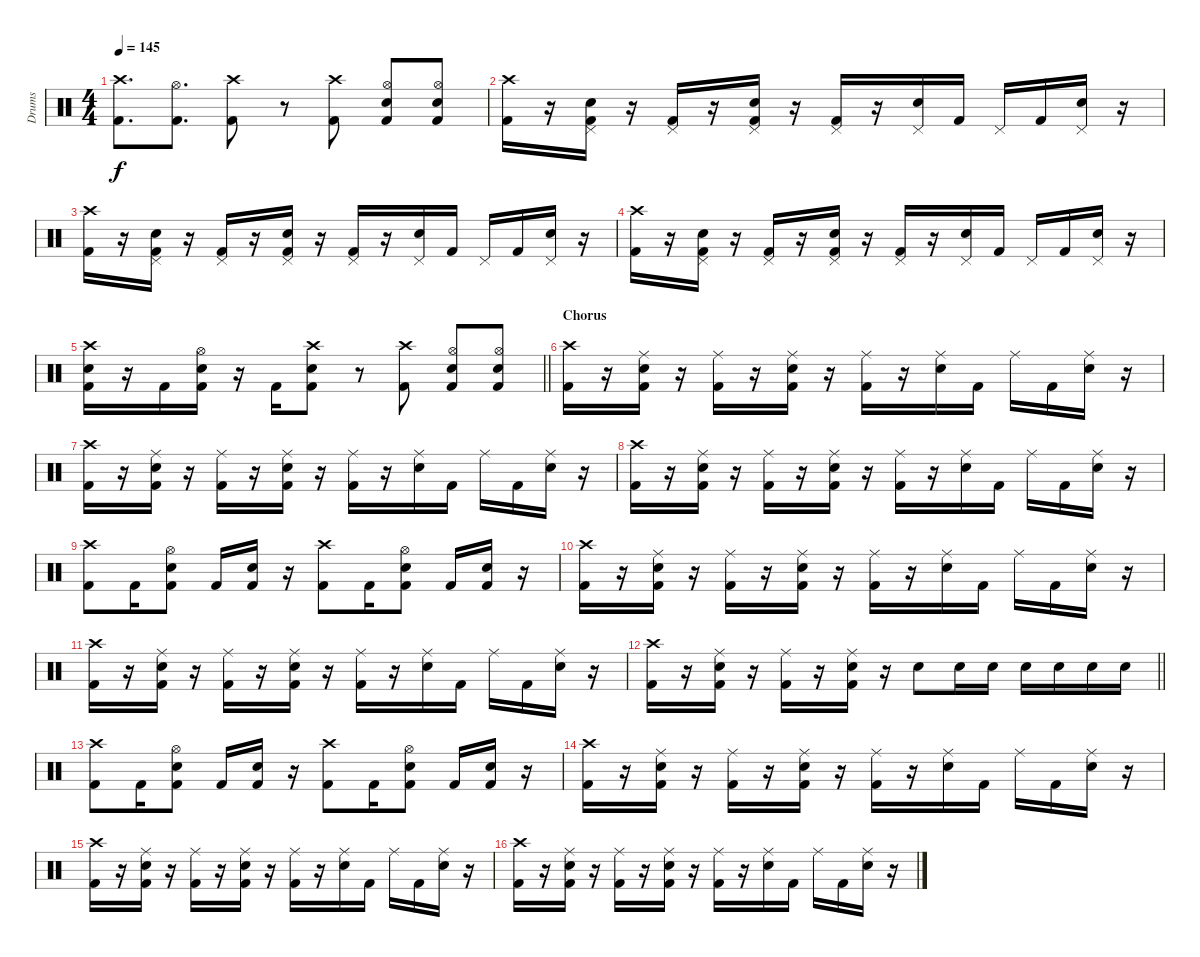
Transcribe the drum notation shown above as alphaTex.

\track ("Drums" "Drums") {instrument percussion}
\staff {score}
\articulation defaults
\ts (4 4)
\tempo 145
\clef neutral
\ks c
("Crash high (hit)" "Kick (hit) 2").8{d dy f} ("Hi-Hat (open)" "Kick (hit) 2").8{d} ("Crash high (hit)" "Kick (hit) 2").8 r.8 ("Crash high (hit)" "Kick (hit) 2").8 ("Hi-Hat (open)" "Snare (hit) 2" "Kick (hit) 2").8 ("Hi-Hat (open)" "Snare (hit) 2" "Kick (hit) 2").8 |
("Crash high (hit)" "Kick (hit) 2").16 r.16 ("Pedal Hi-Hat (hit)" "Snare (hit) 2" "Kick (hit) 2").16 r.16 ("Pedal Hi-Hat (hit)" "Kick (hit) 2").16 r.16 ("Pedal Hi-Hat (hit)" "Snare (hit) 2" "Kick (hit) 2").16 r.16 ("Pedal Hi-Hat (hit)" "Kick (hit) 2").16 r.16 ("Pedal Hi-Hat (hit)" "Snare (hit) 2").16 "Kick (hit) 2".16 "Pedal Hi-Hat (hit)".16 "Kick (hit) 2".16 ("Pedal Hi-Hat (hit)" "Snare (hit) 2").16 r.16 |
("Crash high (hit)" "Kick (hit) 2").16 r.16 ("Pedal Hi-Hat (hit)" "Snare (hit) 2" "Kick (hit) 2").16 r.16 ("Pedal Hi-Hat (hit)" "Kick (hit) 2").16 r.16 ("Pedal Hi-Hat (hit)" "Snare (hit) 2" "Kick (hit) 2").16 r.16 ("Pedal Hi-Hat (hit)" "Kick (hit) 2").16 r.16 ("Pedal Hi-Hat (hit)" "Snare (hit) 2").16 "Kick (hit) 2".16 "Pedal Hi-Hat (hit)".16 "Kick (hit) 2".16 ("Pedal Hi-Hat (hit)" "Snare (hit) 2").16 r.16 |
("Crash high (hit)" "Kick (hit) 2").16 r.16 ("Pedal Hi-Hat (hit)" "Snare (hit) 2" "Kick (hit) 2").16 r.16 ("Pedal Hi-Hat (hit)" "Kick (hit) 2").16 r.16 ("Pedal Hi-Hat (hit)" "Snare (hit) 2" "Kick (hit) 2").16 r.16 ("Pedal Hi-Hat (hit)" "Kick (hit) 2").16 r.16 ("Pedal Hi-Hat (hit)" "Snare (hit) 2").16 "Kick (hit) 2".16 "Pedal Hi-Hat (hit)".16 "Kick (hit) 2".16 ("Pedal Hi-Hat (hit)" "Snare (hit) 2").16 r.16 |
\barLineRight lightlight
("Crash high (hit)" "Snare (hit) 2" "Kick (hit) 2").16 r.16 "Kick (hit) 2".16 ("Hi-Hat (open)" "Snare (hit) 2" "Kick (hit) 2").16 r.16 "Kick (hit) 2".16 ("Crash high (hit)" "Snare (hit) 2" "Kick (hit) 2").8 r.8 ("Crash high (hit)" "Kick (hit) 2").8 ("Hi-Hat (open)" "Snare (hit) 2" "Kick (hit) 2").8 ("Hi-Hat (open)" "Snare (hit) 2" "Kick (hit) 2").8 |
\section ("" "Chorus")
("Crash high (hit)" "Kick (hit) 2").16 r.16 ("Ride (middle)" "Snare (hit) 2" "Kick (hit) 2").16 r.16 ("Ride (middle)" "Kick (hit) 2").16 r.16 ("Ride (middle)" "Snare (hit) 2" "Kick (hit) 2").16 r.16 ("Ride (middle)" "Kick (hit) 2").16 r.16 ("Ride (middle)" "Snare (hit) 2").16 "Kick (hit) 2".16 "Ride (middle)".16 "Kick (hit) 2".16 ("Ride (middle)" "Snare (hit) 2").16 r.16 |
("Crash high (hit)" "Kick (hit) 2").16 r.16 ("Ride (middle)" "Snare (hit) 2" "Kick (hit) 2").16 r.16 ("Ride (middle)" "Kick (hit) 2").16 r.16 ("Ride (middle)" "Snare (hit) 2" "Kick (hit) 2").16 r.16 ("Ride (middle)" "Kick (hit) 2").16 r.16 ("Ride (middle)" "Snare (hit) 2").16 "Kick (hit) 2".16 "Ride (middle)".16 "Kick (hit) 2".16 ("Ride (middle)" "Snare (hit) 2").16 r.16 |
("Crash high (hit)" "Kick (hit) 2").16 r.16 ("Ride (middle)" "Snare (hit) 2" "Kick (hit) 2").16 r.16 ("Ride (middle)" "Kick (hit) 2").16 r.16 ("Ride (middle)" "Snare (hit) 2" "Kick (hit) 2").16 r.16 ("Ride (middle)" "Kick (hit) 2").16 r.16 ("Ride (middle)" "Snare (hit) 2").16 "Kick (hit) 2".16 "Ride (middle)".16 "Kick (hit) 2".16 ("Ride (middle)" "Snare (hit) 2").16 r.16 |
("Crash high (hit)" "Kick (hit) 2").8 "Kick (hit) 2".16 ("Hi-Hat (open)" "Snare (hit) 2" "Kick (hit) 2").8 "Kick (hit) 2".16 ("Snare (hit) 2" "Kick (hit) 2").16 r.16 ("Crash high (hit)" "Kick (hit) 2").8 "Kick (hit) 2".16 ("Hi-Hat (open)" "Snare (hit) 2" "Kick (hit) 2").8 "Kick (hit) 2".16 ("Snare (hit) 2" "Kick (hit) 2").16 r.16 |
("Crash high (hit)" "Kick (hit) 2").16 r.16 ("Ride (middle)" "Snare (hit) 2" "Kick (hit) 2").16 r.16 ("Ride (middle)" "Kick (hit) 2").16 r.16 ("Ride (middle)" "Snare (hit) 2" "Kick (hit) 2").16 r.16 ("Ride (middle)" "Kick (hit) 2").16 r.16 ("Ride (middle)" "Snare (hit) 2").16 "Kick (hit) 2".16 "Ride (middle)".16 "Kick (hit) 2".16 ("Ride (middle)" "Snare (hit) 2").16 r.16 |
("Crash high (hit)" "Kick (hit) 2").16 r.16 ("Ride (middle)" "Snare (hit) 2" "Kick (hit) 2").16 r.16 ("Ride (middle)" "Kick (hit) 2").16 r.16 ("Ride (middle)" "Snare (hit) 2" "Kick (hit) 2").16 r.16 ("Ride (middle)" "Kick (hit) 2").16 r.16 ("Ride (middle)" "Snare (hit) 2").16 "Kick (hit) 2".16 "Ride (middle)".16 "Kick (hit) 2".16 ("Ride (middle)" "Snare (hit) 2").16 r.16 |
\barLineRight lightlight
("Crash high (hit)" "Kick (hit) 2").16 r.16 ("Ride (middle)" "Snare (hit) 2" "Kick (hit) 2").16 r.16 ("Ride (middle)" "Kick (hit) 2").16 r.16 ("Ride (middle)" "Snare (hit) 2" "Kick (hit) 2").16 r.16 "Snare (hit) 2".8 "Snare (hit) 2".16 "Snare (hit) 2".16 "Snare (hit) 2".16 "Snare (hit) 2".16 "Snare (hit) 2".16 "Snare (hit) 2".16 |
("Crash high (hit)" "Kick (hit) 2").8 "Kick (hit) 2".16 ("Hi-Hat (open)" "Snare (hit) 2" "Kick (hit) 2").8 "Kick (hit) 2".16 ("Snare (hit) 2" "Kick (hit) 2").16 r.16 ("Crash high (hit)" "Kick (hit) 2").8 "Kick (hit) 2".16 ("Hi-Hat (open)" "Snare (hit) 2" "Kick (hit) 2").8 "Kick (hit) 2".16 ("Snare (hit) 2" "Kick (hit) 2").16 r.16 |
("Crash high (hit)" "Kick (hit) 2").16 r.16 ("Ride (middle)" "Snare (hit) 2" "Kick (hit) 2").16 r.16 ("Ride (middle)" "Kick (hit) 2").16 r.16 ("Ride (middle)" "Snare (hit) 2" "Kick (hit) 2").16 r.16 ("Ride (middle)" "Kick (hit) 2").16 r.16 ("Ride (middle)" "Snare (hit) 2").16 "Kick (hit) 2".16 "Ride (middle)".16 "Kick (hit) 2".16 ("Ride (middle)" "Snare (hit) 2").16 r.16 |
("Crash high (hit)" "Kick (hit) 2").16 r.16 ("Ride (middle)" "Snare (hit) 2" "Kick (hit) 2").16 r.16 ("Ride (middle)" "Kick (hit) 2").16 r.16 ("Ride (middle)" "Snare (hit) 2" "Kick (hit) 2").16 r.16 ("Ride (middle)" "Kick (hit) 2").16 r.16 ("Ride (middle)" "Snare (hit) 2").16 "Kick (hit) 2".16 "Ride (middle)".16 "Kick (hit) 2".16 ("Ride (middle)" "Snare (hit) 2").16 r.16 |
("Crash high (hit)" "Kick (hit) 2").16 r.16 ("Ride (middle)" "Snare (hit) 2" "Kick (hit) 2").16 r.16 ("Ride (middle)" "Kick (hit) 2").16 r.16 ("Ride (middle)" "Snare (hit) 2" "Kick (hit) 2").16 r.16 ("Ride (middle)" "Kick (hit) 2").16 r.16 ("Ride (middle)" "Snare (hit) 2").16 "Kick (hit) 2".16 "Ride (middle)".16 "Kick (hit) 2".16 ("Ride (middle)" "Snare (hit) 2").16 r.16
